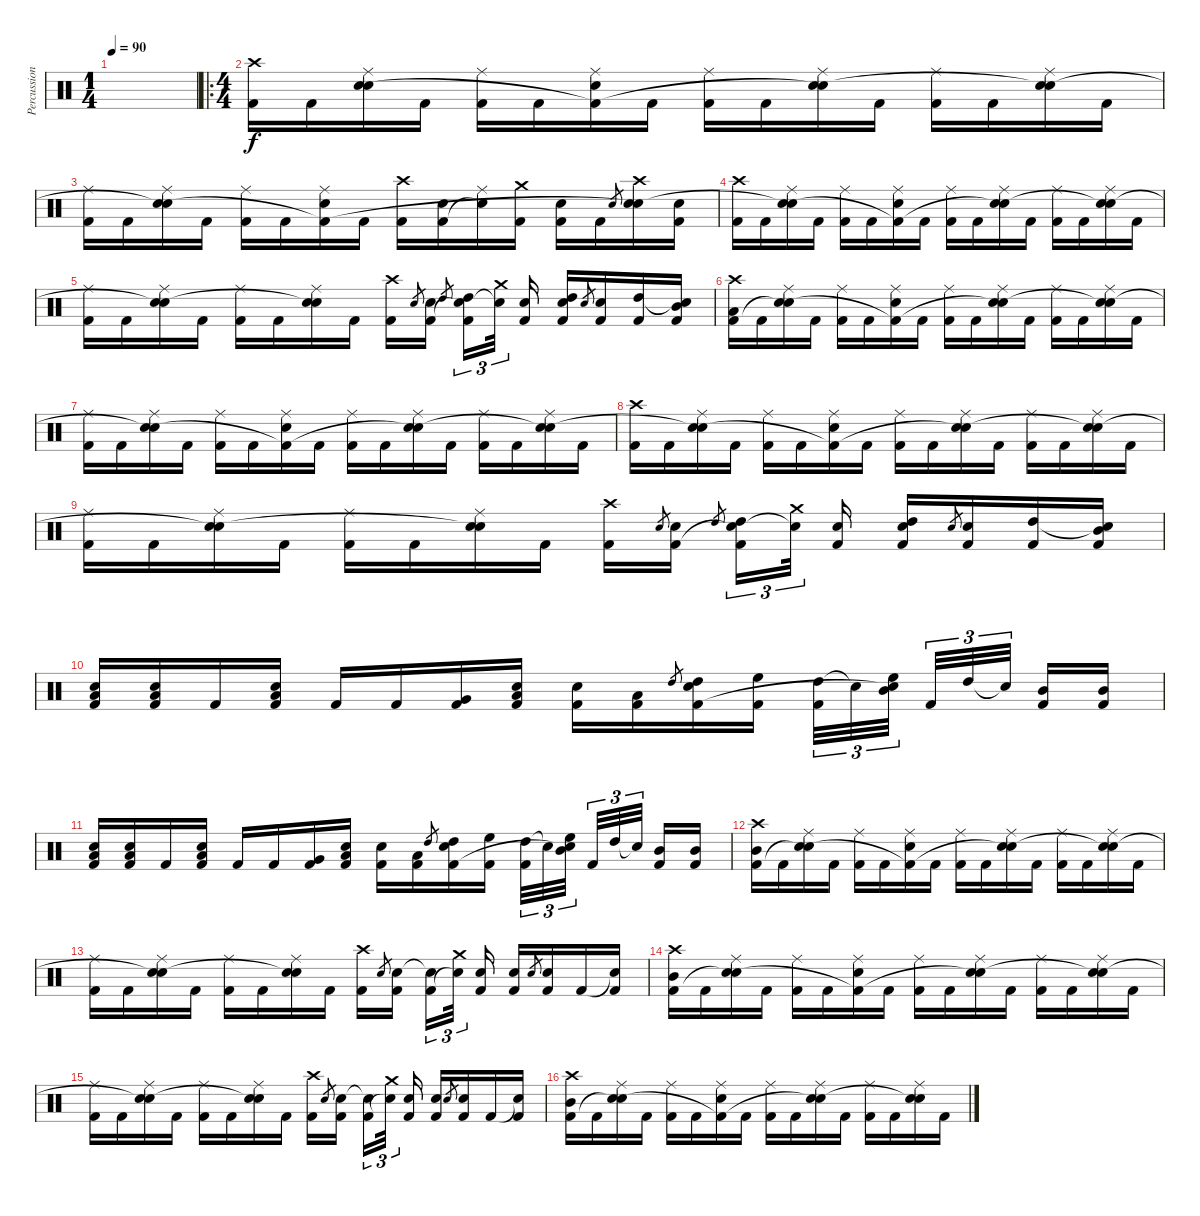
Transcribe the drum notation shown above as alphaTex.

\track ("Percussion" "Percussion") {instrument percussion}
\staff {score}
\articulation defaults
\ts (1 4)
\tempo 90
\clef neutral
\ks c
|
\ro
\ts (4 4)
("Crash high (hit)" "Kick (hit) 2").16 "Kick (hit) 2".16 ("Ride (middle)" "Electric Snare (hit)" "Snare (hit)").16 "Kick (hit) 2".16 ("Ride (middle)" "Kick (hit) 2").16 "Kick (hit) 2".16 ("Ride (middle)" "Electric Snare (hit)" "Kick (hit) 2"{t}).16 "Kick (hit) 2".16 ("Ride (middle)" "Kick (hit) 2").16 "Kick (hit) 2".16 ("Ride (middle)" "Electric Snare (hit)" "Snare (hit)"{t}).16 "Kick (hit) 2".16 ("Ride (middle)" "Kick (hit) 2").16 "Kick (hit) 2".16 ("Ride (middle)" "Electric Snare (hit)" "Snare (hit)"{t}).16 "Kick (hit) 2".16 |
("Ride (middle)" "Kick (hit) 2").16 "Kick (hit) 2".16 ("Ride (middle)" "Electric Snare (hit)" "Snare (hit)"{t}).16 "Kick (hit) 2".16 ("Ride (middle)" "Kick (hit) 2").16 "Kick (hit) 2".16 ("Ride (middle)" "Electric Snare (hit)" "Kick (hit) 2"{t}).16 "Kick (hit) 2".16 ("Crash high (hit)" "Kick (hit) 2").16 ("Electric Snare (hit)" "Kick (hit) 2").16 ("Ride (middle)" "Snare (hit)"{t}).16 ("Crash medium (hit)" "Kick (hit) 2").16 ("Electric Snare (hit)" "Kick (hit) 2").16 "Kick (hit) 2".16 "Electric Snare (hit)".8{gr} ("Crash high (hit)" "Electric Snare (hit)" "Snare (hit)"{t}).16 ("Electric Snare (hit)" "Kick (hit) 2").16 |
("Crash high (hit)" "Kick (hit) 2").16 "Kick (hit) 2".16 ("Ride (middle)" "Electric Snare (hit)" "Snare (hit)"{t}).16 "Kick (hit) 2".16 ("Ride (middle)" "Kick (hit) 2").16 "Kick (hit) 2".16 ("Ride (middle)" "Electric Snare (hit)" "Kick (hit) 2"{t}).16 "Kick (hit) 2".16 ("Ride (middle)" "Kick (hit) 2").16 "Kick (hit) 2".16 ("Ride (middle)" "Electric Snare (hit)" "Snare (hit)"{t}).16 "Kick (hit) 2".16 ("Ride (middle)" "Kick (hit) 2").16 "Kick (hit) 2".16 ("Ride (middle)" "Electric Snare (hit)" "Snare (hit)"{t}).16 "Kick (hit) 2".16 |
("Ride (middle)" "Kick (hit) 2").16 "Kick (hit) 2".16 ("Ride (middle)" "Electric Snare (hit)" "Snare (hit)"{t}).16 "Kick (hit) 2".16 ("Ride (middle)" "Kick (hit) 2").16 "Kick (hit) 2".16 ("Ride (middle)" "Electric Snare (hit)" "Snare (hit)"{t}).16 "Kick (hit) 2".16 ("Crash high (hit)" "Kick (hit) 2").16 "Electric Snare (hit)".8{gr} ("Electric Snare (hit)" "Kick (hit) 2").16 "High Tom (hit)".8{gr} ("High Tom (hit)" "Snare (hit)"{t} "Kick (hit) 2").16{tu (3 2)} ("Crash medium (hit)" "Snare (hit)"{t}).32{tu (3 2)} ("Electric Snare (hit)" "Kick (hit) 2").16 ("High Tom (hit)" "Electric Snare (hit)" "Kick (hit) 2").16 "Electric Snare (hit)".8{gr} ("Electric Snare (hit)" "Kick (hit) 2").16 ("High Tom (hit)" "Kick (hit) 2").16 ("Snare (hit)"{t} "Mid Tom (hit)" "Kick (hit) 2").16 |
("Low Tom (hit)" "Crash high (hit)" "Kick (hit) 2").16 "Kick (hit) 2".16 ("Ride (middle)" "Electric Snare (hit)" "Snare (hit)"{t}).16 "Kick (hit) 2".16 ("Ride (middle)" "Kick (hit) 2").16 "Kick (hit) 2".16 ("Ride (middle)" "Electric Snare (hit)" "Kick (hit) 2"{t}).16 "Kick (hit) 2".16 ("Ride (middle)" "Kick (hit) 2").16 "Kick (hit) 2".16 ("Ride (middle)" "Electric Snare (hit)" "Snare (hit)"{t}).16 "Kick (hit) 2".16 ("Ride (middle)" "Kick (hit) 2").16 "Kick (hit) 2".16 ("Ride (middle)" "Electric Snare (hit)" "Snare (hit)"{t}).16 "Kick (hit) 2".16 |
("Ride (middle)" "Kick (hit) 2").16 "Kick (hit) 2".16 ("Ride (middle)" "Electric Snare (hit)" "Snare (hit)"{t}).16 "Kick (hit) 2".16 ("Ride (middle)" "Kick (hit) 2").16 "Kick (hit) 2".16 ("Ride (middle)" "Electric Snare (hit)" "Kick (hit) 2"{t}).16 "Kick (hit) 2".16 ("Ride (middle)" "Kick (hit) 2").16 "Kick (hit) 2".16 ("Ride (middle)" "Electric Snare (hit)" "Snare (hit)"{t}).16 "Kick (hit) 2".16 ("Ride (middle)" "Kick (hit) 2").16 "Kick (hit) 2".16 ("Ride (middle)" "Electric Snare (hit)" "Snare (hit)"{t}).16 "Kick (hit) 2".16 |
("Crash high (hit)" "Kick (hit) 2").16 "Kick (hit) 2".16 ("Ride (middle)" "Electric Snare (hit)" "Snare (hit)"{t}).16 "Kick (hit) 2".16 ("Ride (middle)" "Kick (hit) 2").16 "Kick (hit) 2".16 ("Ride (middle)" "Electric Snare (hit)" "Kick (hit) 2"{t}).16 "Kick (hit) 2".16 ("Ride (middle)" "Kick (hit) 2").16 "Kick (hit) 2".16 ("Ride (middle)" "Electric Snare (hit)" "Snare (hit)"{t}).16 "Kick (hit) 2".16 ("Ride (middle)" "Kick (hit) 2").16 "Kick (hit) 2".16 ("Ride (middle)" "Electric Snare (hit)" "Snare (hit)"{t}).16 "Kick (hit) 2".16 |
("Ride (middle)" "Kick (hit) 2").16 "Kick (hit) 2".16 ("Ride (middle)" "Electric Snare (hit)" "Snare (hit)"{t}).16 "Kick (hit) 2".16 ("Ride (middle)" "Kick (hit) 2").16 "Kick (hit) 2".16 ("Ride (middle)" "Electric Snare (hit)" "Snare (hit)"{t}).16 "Kick (hit) 2".16 ("Crash high (hit)" "Kick (hit) 2").16 "Electric Snare (hit)".8{gr} ("Electric Snare (hit)" "Kick (hit) 2").16 "High Tom (hit)".8{gr} ("High Tom (hit)" "Snare (hit)"{t} "Kick (hit) 2").16{tu (3 2)} ("Crash medium (hit)" "Snare (hit)"{t}).32{tu (3 2)} ("Electric Snare (hit)" "Kick (hit) 2").16 ("High Tom (hit)" "Electric Snare (hit)" "Kick (hit) 2").16 "Electric Snare (hit)".8{gr} ("Electric Snare (hit)" "Kick (hit) 2").16 ("High Tom (hit)" "Kick (hit) 2").16 ("Snare (hit)"{t} "Mid Tom (hit)" "Kick (hit) 2").16 |
("Low Tom (hit)" "Electric Snare (hit)" "Kick (hit) 2").16 ("Low Floor Tom (hit)" "Electric Snare (hit)" "Kick (hit) 2").16 "Kick (hit) 2".16 ("Low Floor Tom (hit)" "Electric Snare (hit)" "Kick (hit) 2").16 "Kick (hit) 2".16 "Kick (hit) 2".16 ("Very Low Tom (hit)" "Kick (hit) 2").16 ("Low Floor Tom (hit)" "Electric Snare (hit)" "Kick (hit) 2").16 ("Electric Snare (hit)" "Kick (hit) 2").16 ("Low Floor Tom (hit)" "Kick (hit) 2").16 "High Tom (hit)".8{gr} ("High Tom (hit)" "Electric Snare (hit)" "Kick (hit) 2").16 ("High Floor Tom (hit)" "Kick (hit) 2").16 ("High Tom (hit)" "Kick (hit) 2").32{tu (3 2)} "Snare (hit)"{t}.32{tu (3 2)} ("Mid Tom (hit)" "High Floor Tom (hit)" "Snare (hit)"{t}).32{tu (3 2)} "Kick (hit) 2".32{tu (3 2)} "High Tom (hit)".32{tu (3 2)} "Snare (hit)"{t}.32{tu (3 2)} ("Mid Tom (hit)" "Kick (hit) 2").16 ("Mid Tom (hit)" "Kick (hit) 2").16 |
("Low Tom (hit)" "Electric Snare (hit)" "Kick (hit) 2").16 ("Low Floor Tom (hit)" "Electric Snare (hit)" "Kick (hit) 2").16 "Kick (hit) 2".16 ("Low Floor Tom (hit)" "Electric Snare (hit)" "Kick (hit) 2").16 "Kick (hit) 2".16 "Kick (hit) 2".16 ("Very Low Tom (hit)" "Kick (hit) 2").16 ("Low Floor Tom (hit)" "Electric Snare (hit)" "Kick (hit) 2").16 ("Electric Snare (hit)" "Kick (hit) 2").16 ("Low Floor Tom (hit)" "Kick (hit) 2").16 "High Tom (hit)".8{gr} ("High Tom (hit)" "Electric Snare (hit)" "Kick (hit) 2").16 ("High Floor Tom (hit)" "Kick (hit) 2").16 ("High Tom (hit)" "Kick (hit) 2").32{tu (3 2)} "Snare (hit)"{t}.32{tu (3 2)} ("Mid Tom (hit)" "High Floor Tom (hit)" "Snare (hit)"{t}).32{tu (3 2)} "Kick (hit) 2".32{tu (3 2)} "High Tom (hit)".32{tu (3 2)} "Snare (hit)"{t}.32{tu (3 2)} ("Mid Tom (hit)" "Kick (hit) 2").16 ("Mid Tom (hit)" "Kick (hit) 2").16 |
("Mid Tom (hit)" "Crash high (hit)" "Kick (hit) 2").16 "Kick (hit) 2".16 ("Ride (middle)" "Electric Snare (hit)" "Snare (hit)"{t}).16 "Kick (hit) 2".16 ("Ride (middle)" "Kick (hit) 2").16 "Kick (hit) 2".16 ("Ride (middle)" "Electric Snare (hit)" "Kick (hit) 2"{t}).16 "Kick (hit) 2".16 ("Ride (middle)" "Kick (hit) 2").16 "Kick (hit) 2".16 ("Ride (middle)" "Electric Snare (hit)" "Snare (hit)"{t}).16 "Kick (hit) 2".16 ("Ride (middle)" "Kick (hit) 2").16 "Kick (hit) 2".16 ("Ride (middle)" "Electric Snare (hit)" "Snare (hit)"{t}).16 "Kick (hit) 2".16 |
("Ride (middle)" "Kick (hit) 2").16 "Kick (hit) 2".16 ("Ride (middle)" "Electric Snare (hit)" "Snare (hit)"{t}).16 "Kick (hit) 2".16 ("Ride (middle)" "Kick (hit) 2").16 "Kick (hit) 2".16 ("Ride (middle)" "Electric Snare (hit)" "Snare (hit)"{t}).16 "Kick (hit) 2".16 ("Crash high (hit)" "Kick (hit) 2").16 "Electric Snare (hit)".8{gr} ("Electric Snare (hit)" "Kick (hit) 2").16 ("Snare (hit)"{t} "Kick (hit) 2").16{tu (3 2)} ("Crash medium (hit)" "Snare (hit)"{t}).32{tu (3 2)} ("Electric Snare (hit)" "Kick (hit) 2").16 ("Electric Snare (hit)" "Kick (hit) 2").16 "Electric Snare (hit)".8{gr} ("Electric Snare (hit)" "Kick (hit) 2").16 "Kick (hit) 2".16 ("Snare (hit)"{t} "Kick (hit) 2").16 |
("Mid Tom (hit)" "Crash high (hit)" "Kick (hit) 2").16 "Kick (hit) 2".16 ("Ride (middle)" "Electric Snare (hit)" "Snare (hit)"{t}).16 "Kick (hit) 2".16 ("Ride (middle)" "Kick (hit) 2").16 "Kick (hit) 2".16 ("Ride (middle)" "Electric Snare (hit)" "Kick (hit) 2"{t}).16 "Kick (hit) 2".16 ("Ride (middle)" "Kick (hit) 2").16 "Kick (hit) 2".16 ("Ride (middle)" "Electric Snare (hit)" "Snare (hit)"{t}).16 "Kick (hit) 2".16 ("Ride (middle)" "Kick (hit) 2").16 "Kick (hit) 2".16 ("Ride (middle)" "Electric Snare (hit)" "Snare (hit)"{t}).16 "Kick (hit) 2".16 |
("Ride (middle)" "Kick (hit) 2").16 "Kick (hit) 2".16 ("Ride (middle)" "Electric Snare (hit)" "Snare (hit)"{t}).16 "Kick (hit) 2".16 ("Ride (middle)" "Kick (hit) 2").16 "Kick (hit) 2".16 ("Ride (middle)" "Electric Snare (hit)" "Snare (hit)"{t}).16 "Kick (hit) 2".16 ("Crash high (hit)" "Kick (hit) 2").16 "Electric Snare (hit)".8{gr} ("Electric Snare (hit)" "Kick (hit) 2").16 ("Snare (hit)"{t} "Kick (hit) 2").16{tu (3 2)} ("Crash medium (hit)" "Snare (hit)"{t}).32{tu (3 2)} ("Electric Snare (hit)" "Kick (hit) 2").16 ("Electric Snare (hit)" "Kick (hit) 2").16 "Electric Snare (hit)".8{gr} ("Electric Snare (hit)" "Kick (hit) 2").16 "Kick (hit) 2".16 ("Snare (hit)"{t} "Kick (hit) 2").16 |
("Mid Tom (hit)" "Crash high (hit)" "Kick (hit) 2").16 "Kick (hit) 2".16 ("Ride (middle)" "Electric Snare (hit)" "Snare (hit)"{t}).16 "Kick (hit) 2".16 ("Ride (middle)" "Kick (hit) 2").16 "Kick (hit) 2".16 ("Ride (middle)" "Electric Snare (hit)" "Kick (hit) 2"{t}).16 "Kick (hit) 2".16 ("Ride (middle)" "Kick (hit) 2").16 "Kick (hit) 2".16 ("Ride (middle)" "Electric Snare (hit)" "Snare (hit)"{t}).16 "Kick (hit) 2".16 ("Ride (middle)" "Kick (hit) 2").16 "Kick (hit) 2".16 ("Ride (middle)" "Electric Snare (hit)" "Snare (hit)"{t}).16 "Kick (hit) 2".16
